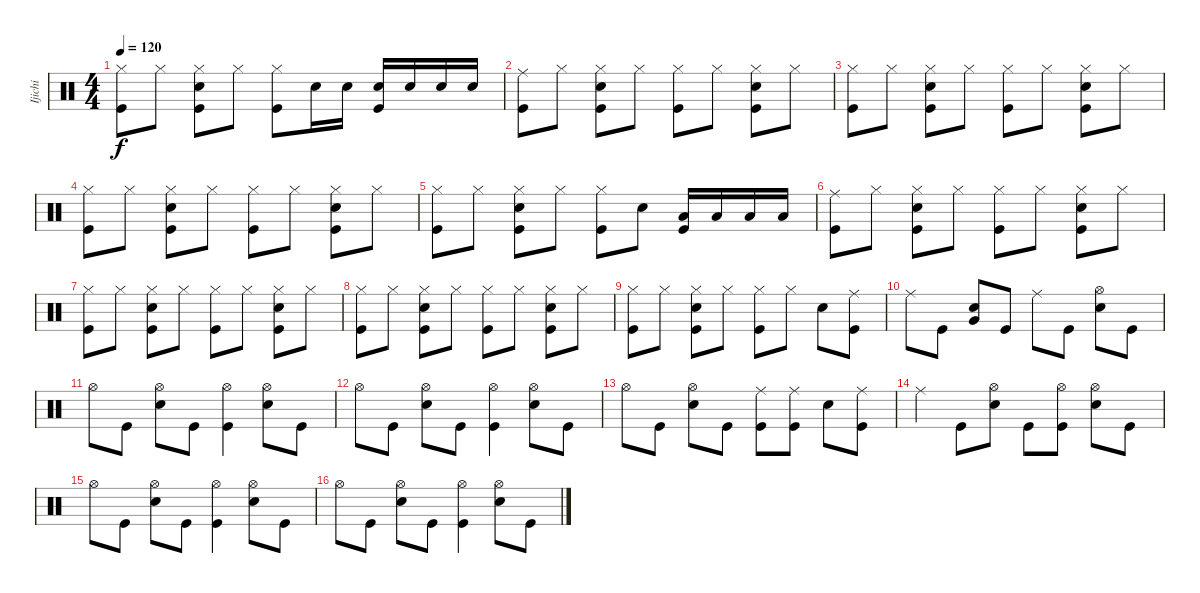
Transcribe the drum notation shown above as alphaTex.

\track ("Ijichi" "Ijichi") {instrument percussion}
\staff {score}
\articulation defaults
\ts (4 4)
\tempo 120
\clef neutral
\ks c
("Hi-Hat (closed)" "Kick (hit)").8{dy f} "Hi-Hat (closed)".8 ("Hi-Hat (closed)" "Snare (hit) 2" "Kick (hit)").8 "Hi-Hat (closed)".8 ("Hi-Hat (closed)" "Kick (hit)").8 "Snare (hit) 2".16 "Snare (hit) 2".16 ("Snare (hit) 2" "Kick (hit)").16 "Snare (hit) 2".16 "Snare (hit) 2".16 "Snare (hit) 2".16 |
("Ride (middle)" "Kick (hit)").8 "Hi-Hat (closed)".8 ("Hi-Hat (closed)" "Snare (hit) 2" "Kick (hit)").8 "Hi-Hat (closed)".8 ("Hi-Hat (closed)" "Kick (hit)").8 "Hi-Hat (closed)".8 ("Hi-Hat (closed)" "Snare (hit) 2" "Kick (hit)").8 "Hi-Hat (closed)".8 |
("Hi-Hat (closed)" "Kick (hit)").8 "Hi-Hat (closed)".8 ("Hi-Hat (closed)" "Snare (hit) 2" "Kick (hit)").8 "Hi-Hat (closed)".8 ("Hi-Hat (closed)" "Kick (hit)").8 "Hi-Hat (closed)".8 ("Hi-Hat (closed)" "Snare (hit) 2" "Kick (hit)").8 "Hi-Hat (closed)".8 |
("Hi-Hat (closed)" "Kick (hit)").8 "Hi-Hat (closed)".8 ("Hi-Hat (closed)" "Snare (hit) 2" "Kick (hit)").8 "Hi-Hat (closed)".8 ("Hi-Hat (closed)" "Kick (hit)").8 "Hi-Hat (closed)".8 ("Hi-Hat (closed)" "Snare (hit) 2" "Kick (hit)").8 "Hi-Hat (closed)".8 |
("Hi-Hat (closed)" "Kick (hit)").8 "Hi-Hat (closed)".8 ("Hi-Hat (closed)" "Snare (hit) 2" "Kick (hit)").8 "Hi-Hat (closed)".8 ("Hi-Hat (closed)" "Kick (hit)").8 "Snare (hit) 2".8 ("Low Tom (hit)" "Kick (hit)").16 "Low Tom (hit)".16 "Low Tom (hit)".16 "Low Tom (hit)".16 |
("Ride (middle)" "Kick (hit)").8 "Hi-Hat (closed)".8 ("Hi-Hat (closed)" "Snare (hit) 2" "Kick (hit)").8 "Hi-Hat (closed)".8 ("Hi-Hat (closed)" "Kick (hit)").8 "Hi-Hat (closed)".8 ("Hi-Hat (closed)" "Snare (hit) 2" "Kick (hit)").8 "Hi-Hat (closed)".8 |
("Hi-Hat (closed)" "Kick (hit)").8 "Hi-Hat (closed)".8 ("Hi-Hat (closed)" "Snare (hit) 2" "Kick (hit)").8 "Hi-Hat (closed)".8 ("Hi-Hat (closed)" "Kick (hit)").8 "Hi-Hat (closed)".8 ("Hi-Hat (closed)" "Snare (hit) 2" "Kick (hit)").8 "Hi-Hat (closed)".8 |
("Hi-Hat (closed)" "Kick (hit)").8 "Hi-Hat (closed)".8 ("Hi-Hat (closed)" "Snare (hit) 2" "Kick (hit)").8 "Hi-Hat (closed)".8 ("Hi-Hat (closed)" "Kick (hit)").8 "Hi-Hat (closed)".8 ("Hi-Hat (closed)" "Snare (hit) 2" "Kick (hit)").8 "Hi-Hat (closed)".8 |
("Hi-Hat (closed)" "Kick (hit)").8 "Hi-Hat (closed)".8 ("Hi-Hat (closed)" "Snare (hit) 2" "Kick (hit)").8 "Hi-Hat (closed)".8 ("Hi-Hat (closed)" "Kick (hit)").8 "Hi-Hat (closed)".8 "Snare (hit) 2".8 ("Ride (middle)" "Kick (hit)").8 |
"Ride (middle)".8 "Kick (hit)".8 ("Snare (hit) 2" "Very Low Tom (hit)").8 "Kick (hit)".8 "Ride (middle)".8 "Kick (hit)".8 ("Hi-Hat (open)" "Snare (hit) 2").8 "Kick (hit)".8 |
"Hi-Hat (open)".8 "Kick (hit)".8 ("Hi-Hat (open)" "Snare (hit) 2").8 "Kick (hit)".8 ("Hi-Hat (open)" "Kick (hit)").4 ("Hi-Hat (open)" "Snare (hit) 2").8 "Kick (hit)".8 |
"Hi-Hat (open)".8 "Kick (hit)".8 ("Hi-Hat (open)" "Snare (hit) 2").8 "Kick (hit)".8 ("Hi-Hat (open)" "Kick (hit)").4 ("Hi-Hat (open)" "Snare (hit) 2").8 "Kick (hit)".8 |
"Hi-Hat (open)".8 "Kick (hit)".8 ("Hi-Hat (open)" "Snare (hit) 2").8 "Kick (hit)".8 ("Ride (middle)" "Kick (hit)").8 ("Ride (middle)" "Kick (hit)").8 "Snare (hit) 2".8 ("Ride (middle)" "Kick (hit)").8 |
"Ride (middle)".4 "Kick (hit)".8 ("Hi-Hat (open)" "Snare (hit) 2").8 "Kick (hit)".8 ("Hi-Hat (open)" "Kick (hit)").8 ("Hi-Hat (open)" "Snare (hit) 2").8 "Kick (hit)".8 |
"Hi-Hat (open)".8 "Kick (hit)".8 ("Hi-Hat (open)" "Snare (hit) 2").8 "Kick (hit)".8 ("Hi-Hat (open)" "Kick (hit)").4 ("Hi-Hat (open)" "Snare (hit) 2").8 "Kick (hit)".8 |
"Hi-Hat (open)".8 "Kick (hit)".8 ("Hi-Hat (open)" "Snare (hit) 2").8 "Kick (hit)".8 ("Hi-Hat (open)" "Kick (hit)").4 ("Hi-Hat (open)" "Snare (hit) 2").8 "Kick (hit)".8
